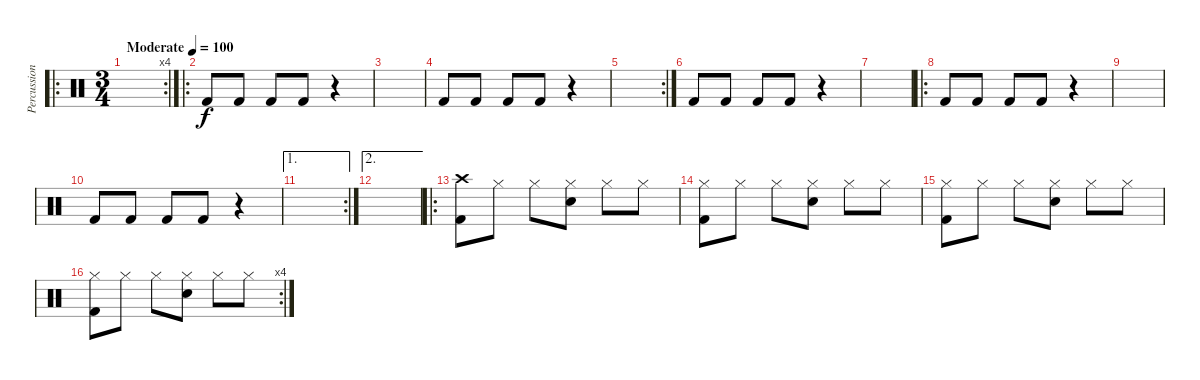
\track ("Percussion" "Percussion") {instrument percussion}
\staff {score}
\articulation defaults
\ro
\rc 4
\ts (3 4)
\tempo (100 "Moderate")
\clef neutral
\ks c
|
\ro "Kick (hit) 2".8 "Kick (hit) 2".8 "Kick (hit) 2".8 "Kick (hit) 2".8
r.4 |
|
"Kick (hit) 2".8 "Kick (hit) 2".8 "Kick (hit) 2".8 "Kick (hit) 2".8 r.4 |
\rc 2
|
"Kick (hit) 2".8 "Kick (hit) 2".8 "Kick (hit) 2".8 "Kick (hit) 2".8 r.4 |
|
\ro "Kick (hit) 2".8 "Kick (hit) 2".8 "Kick (hit) 2".8 "Kick (hit) 2".8
r.4 |
|
"Kick (hit) 2".8 "Kick (hit) 2".8 "Kick (hit) 2".8 "Kick (hit) 2".8 r.4 |
\ae 1
\rc 2
|
\ae 2
|
\ro
("Crash high (hit)" "Kick (hit) 2").8 "Hi-Hat (closed)".8 "Hi-Hat (closed)".8 ("Hi-Hat (closed)" "Snare (hit) 2").8 "Hi-Hat (closed)".8 "Hi-Hat (closed)".8 |
("Hi-Hat (closed)" "Kick (hit) 2").8 "Hi-Hat (closed)".8 "Hi-Hat (closed)".8 ("Hi-Hat (closed)" "Snare (hit) 2").8 "Hi-Hat (closed)".8 "Hi-Hat (closed)".8 |
("Hi-Hat (closed)" "Kick (hit) 2").8 "Hi-Hat (closed)".8 "Hi-Hat (closed)".8 ("Hi-Hat (closed)" "Snare (hit) 2").8 "Hi-Hat (closed)".8 "Hi-Hat (closed)".8 |
\rc 4
("Hi-Hat (closed)" "Kick (hit) 2").8 "Hi-Hat (closed)".8 "Hi-Hat (closed)".8 ("Hi-Hat (closed)" "Snare (hit) 2").8 "Hi-Hat (closed)".8 "Hi-Hat (closed)".8
